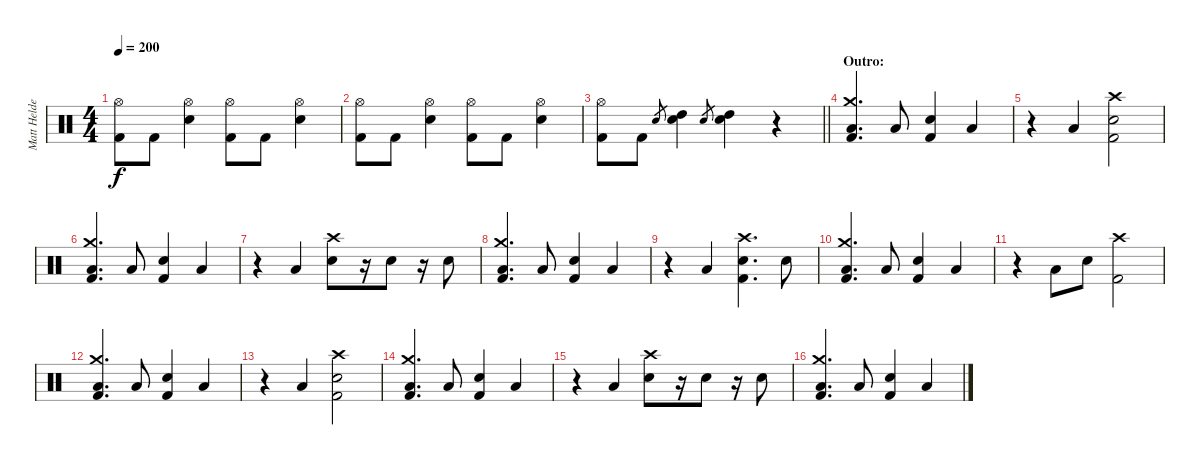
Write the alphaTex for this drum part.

\track ("Matt Helders (Drums/Percussion)" "Matt Helde") {instrument percussion}
\staff {score}
\articulation defaults
\ts (4 4)
\tempo 200
\clef neutral
\ks c
("Hi-Hat (open)" "Kick (hit) 2").8{dy f} "Kick (hit) 2".8 ("Hi-Hat (open)" "Snare (hit) 2").4 ("Hi-Hat (open)" "Kick (hit) 2").8 "Kick (hit) 2".8 ("Hi-Hat (open)" "Snare (hit) 2").4 |
("Hi-Hat (open)" "Kick (hit) 2").8 "Kick (hit) 2".8 ("Hi-Hat (open)" "Snare (hit) 2").4 ("Hi-Hat (open)" "Kick (hit) 2").8 "Kick (hit) 2".8 ("Hi-Hat (open)" "Snare (hit) 2").4 |
\barLineRight lightlight
("Hi-Hat (open)" "Kick (hit) 2").8 "Kick (hit) 2".8 "Snare (hit) 2".8{gr} ("Snare (hit) 2" "High Tom (hit)").4 "Snare (hit) 2".8{gr} ("Snare (hit) 2" "High Tom (hit)").4 r.4 |
\section ("" "Outro:")
("Crash medium (hit)" "Low Tom (hit)" "Kick (hit) 2").4{d} "Low Tom (hit)".8 ("Snare (hit) 2" "Kick (hit) 2").4 "Low Tom (hit)".4 |
r.4 "Low Tom (hit)".4 ("Crash high (hit)" "Snare (hit) 2" "Kick (hit) 2").2 |
("Crash medium (hit)" "Low Tom (hit)" "Kick (hit) 2").4{d} "Low Tom (hit)".8 ("Snare (hit) 2" "Kick (hit) 2").4 "Low Tom (hit)".4 |
r.4 "Low Tom (hit)".4 ("Crash high (hit)" "Snare (hit) 2").8 r.16 "Snare (hit) 2".8 r.16 "Snare (hit) 2".8 |
("Crash medium (hit)" "Low Tom (hit)" "Kick (hit) 2").4{d} "Low Tom (hit)".8 ("Snare (hit) 2" "Kick (hit) 2").4 "Low Tom (hit)".4 |
r.4 "Low Tom (hit)".4 ("Crash high (hit)" "Snare (hit) 2" "Kick (hit) 2").4{d} "Snare (hit) 2".8 |
("Crash medium (hit)" "Low Tom (hit)" "Kick (hit) 2").4{d} "Low Tom (hit)".8 ("Snare (hit) 2" "Kick (hit) 2").4 "Low Tom (hit)".4 |
r.4 "Low Tom (hit)".8 "Snare (hit) 2".8 ("Crash high (hit)" "Kick (hit) 2").2 |
("Crash medium (hit)" "Low Tom (hit)" "Kick (hit) 2").4{d} "Low Tom (hit)".8 ("Snare (hit) 2" "Kick (hit) 2").4 "Low Tom (hit)".4 |
r.4 "Low Tom (hit)".4 ("Crash high (hit)" "Snare (hit) 2" "Kick (hit) 2").2 |
("Crash medium (hit)" "Low Tom (hit)" "Kick (hit) 2").4{d} "Low Tom (hit)".8 ("Snare (hit) 2" "Kick (hit) 2").4 "Low Tom (hit)".4 |
r.4 "Low Tom (hit)".4 ("Crash high (hit)" "Snare (hit) 2").8 r.16 "Snare (hit) 2".8 r.16 "Snare (hit) 2".8 |
("Crash medium (hit)" "Low Tom (hit)" "Kick (hit) 2").4{d} "Low Tom (hit)".8 ("Snare (hit) 2" "Kick (hit) 2").4 "Low Tom (hit)".4
